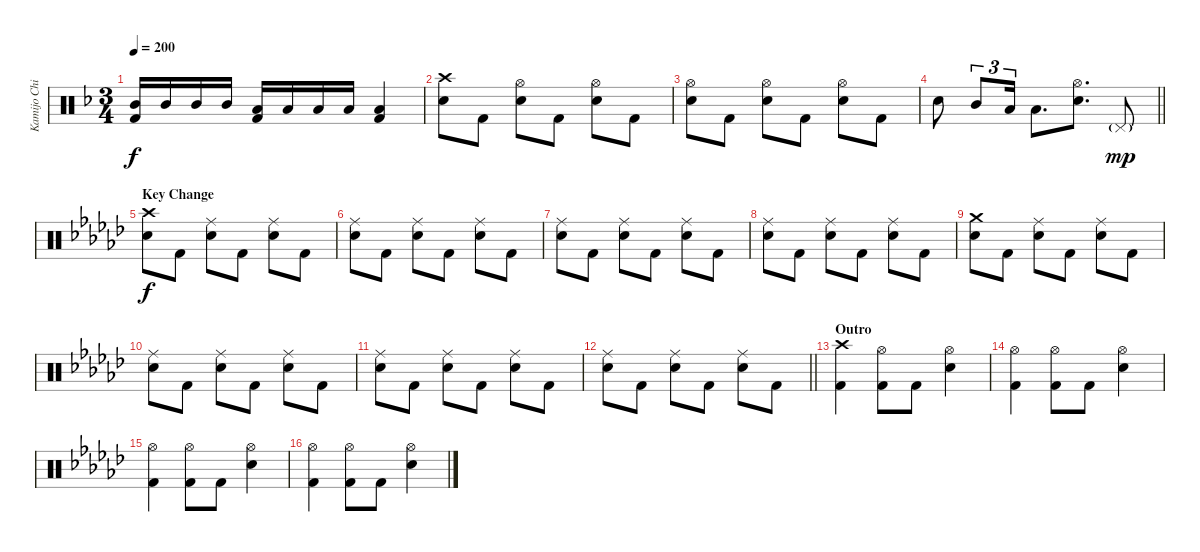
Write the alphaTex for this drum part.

\track ("Kamijo Chihiro" "Kamijo Chi") {instrument percussion}
\staff {score}
\articulation defaults
\ts (3 4)
\tempo 200
\clef neutral
\ks dminor
("Mid Tom (hit)" "Kick (hit) 2").16{dy f} "Mid Tom (hit)".16 "Mid Tom (hit)".16 "Mid Tom (hit)".16 ("Low Tom (hit)" "Kick (hit) 2").16 "Low Tom (hit)".16 "Low Tom (hit)".16 "Low Tom (hit)".16 ("Low Floor Tom (hit)" "Kick (hit) 2").4 |
("Crash high (hit)" "Snare (hit) 2").8 "Kick (hit) 2".8 ("Hi-Hat (open)" "Snare (hit) 2").8 "Kick (hit) 2".8 ("Hi-Hat (open)" "Snare (hit) 2").8 "Kick (hit) 2".8 |
("Hi-Hat (open)" "Snare (hit) 2").8 "Kick (hit) 2".8 ("Hi-Hat (open)" "Snare (hit) 2").8 "Kick (hit) 2".8 ("Hi-Hat (open)" "Snare (hit) 2").8 "Kick (hit) 2".8 |
\barLineRight lightlight "Snare (hit) 2".8 "Mid Tom (hit)".8{tu (3 2)} "Low Tom (hit)".16{tu (3 2)} "Low Tom (hit)".8{d}
("Hi-Hat (open)" "Snare (hit) 2").8{d} "Pedal Hi-Hat (hit)"{g}.8{dy mp} |
\section ("" "Key Change")
\ks ebminor
("Crash high (hit)" "Snare (hit) 2").8{dy f} "Kick (hit) 2".8 ("Ride (middle)" "Snare (hit) 2").8 "Kick (hit) 2".8 ("Ride (middle)" "Snare (hit) 2").8 "Kick (hit) 2".8 |
("Ride (middle)" "Snare (hit) 2").8 "Kick (hit) 2".8 ("Ride (middle)" "Snare (hit) 2").8 "Kick (hit) 2".8 ("Ride (middle)" "Snare (hit) 2").8 "Kick (hit) 2".8 |
("Ride (middle)" "Snare (hit) 2").8 "Kick (hit) 2".8 ("Ride (middle)" "Snare (hit) 2").8 "Kick (hit) 2".8 ("Ride (middle)" "Snare (hit) 2").8 "Kick (hit) 2".8 |
("Ride (middle)" "Snare (hit) 2").8 "Kick (hit) 2".8 ("Ride (middle)" "Snare (hit) 2").8 "Kick (hit) 2".8 ("Ride (middle)" "Snare (hit) 2").8 "Kick (hit) 2".8 |
("Crash medium (hit)" "Snare (hit) 2").8 "Kick (hit) 2".8 ("Ride (middle)" "Snare (hit) 2").8 "Kick (hit) 2".8 ("Ride (middle)" "Snare (hit) 2").8 "Kick (hit) 2".8 |
("Ride (middle)" "Snare (hit) 2").8 "Kick (hit) 2".8 ("Ride (middle)" "Snare (hit) 2").8 "Kick (hit) 2".8 ("Ride (middle)" "Snare (hit) 2").8 "Kick (hit) 2".8 |
("Ride (middle)" "Snare (hit) 2").8 "Kick (hit) 2".8 ("Ride (middle)" "Snare (hit) 2").8 "Kick (hit) 2".8 ("Ride (middle)" "Snare (hit) 2").8 "Kick (hit) 2".8 |
\barLineRight lightlight
("Ride (middle)" "Snare (hit) 2").8 "Kick (hit) 2".8 ("Ride (middle)" "Snare (hit) 2").8 "Kick (hit) 2".8 ("Ride (middle)" "Snare (hit) 2").8 "Kick (hit) 2".8 |
\section ("" "Outro")
("Crash high (hit)" "Kick (hit) 2").4 ("Hi-Hat (open)" "Kick (hit) 2").8 "Kick (hit) 2".8 ("Hi-Hat (open)" "Snare (hit) 2").4 |
("Hi-Hat (open)" "Kick (hit) 2").4 ("Hi-Hat (open)" "Kick (hit) 2").8 "Kick (hit) 2".8 ("Hi-Hat (open)" "Snare (hit) 2").4 |
("Hi-Hat (open)" "Kick (hit) 2").4 ("Hi-Hat (open)" "Kick (hit) 2").8 "Kick (hit) 2".8 ("Hi-Hat (open)" "Snare (hit) 2").4 |
("Hi-Hat (open)" "Kick (hit) 2").4 ("Hi-Hat (open)" "Kick (hit) 2").8 "Kick (hit) 2".8 ("Hi-Hat (open)" "Snare (hit) 2").4
